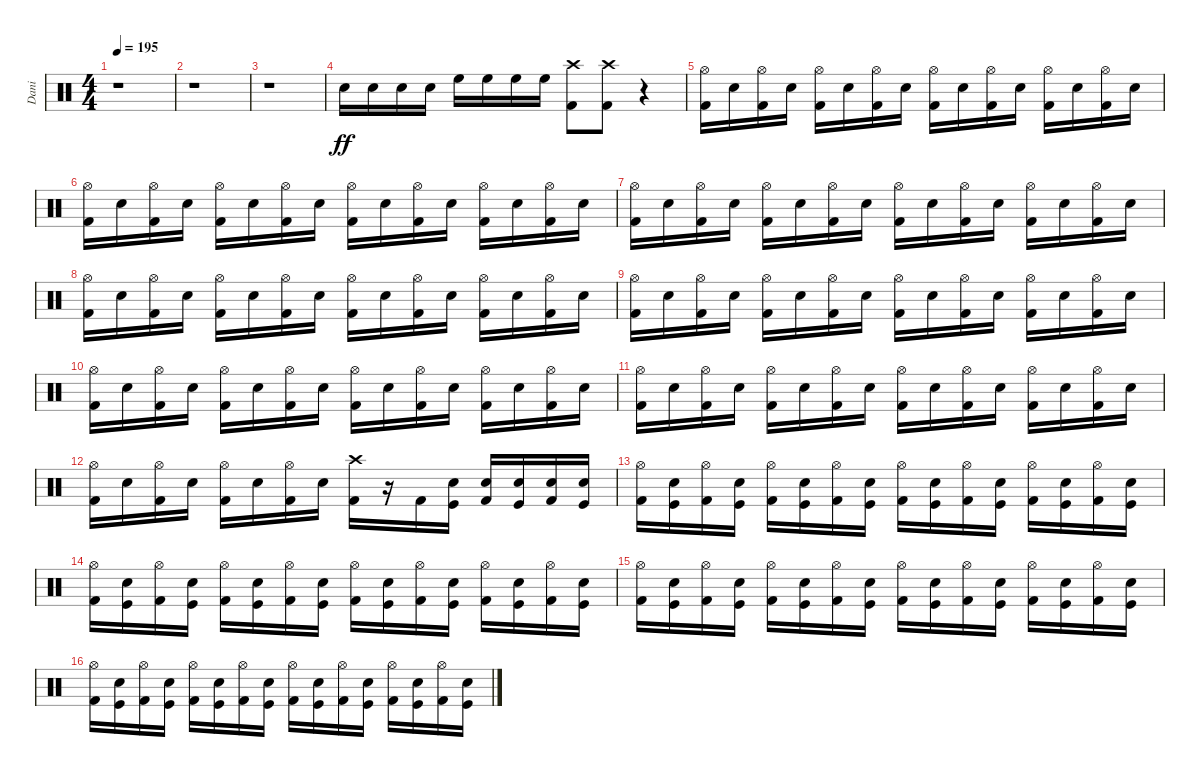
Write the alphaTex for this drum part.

\track ("Dani" "Dani") {instrument percussion}
\staff {score}
\articulation defaults
\ts (4 4)
\section ("" "")
\tempo 195
\clef neutral
\ks c
r.1{dy ff} |
r.1 |
r.1 |
"Electric Snare (hit)".16 "Electric Snare (hit)".16 "Electric Snare (hit)".16 "Electric Snare (hit)".16 "High Floor Tom (hit)".16 "High Floor Tom (hit)".16 "High Floor Tom (hit)".16 "High Floor Tom (hit)".16 ("Crash high (hit)" "Kick (hit) 2").8 ("Crash high (hit)" "Kick (hit) 2").8 r.4 |
("Hi-Hat (open)" "Kick (hit) 2").16 "Electric Snare (hit)".16 ("Hi-Hat (open)" "Kick (hit) 2").16 "Electric Snare (hit)".16 ("Hi-Hat (open)" "Kick (hit) 2").16 "Electric Snare (hit)".16 ("Hi-Hat (open)" "Kick (hit) 2").16 "Electric Snare (hit)".16 ("Hi-Hat (open)" "Kick (hit) 2").16 "Electric Snare (hit)".16 ("Hi-Hat (open)" "Kick (hit) 2").16 "Electric Snare (hit)".16 ("Hi-Hat (open)" "Kick (hit) 2").16 "Electric Snare (hit)".16 ("Hi-Hat (open)" "Kick (hit) 2").16 "Electric Snare (hit)".16 |
("Hi-Hat (open)" "Kick (hit) 2").16 "Electric Snare (hit)".16 ("Hi-Hat (open)" "Kick (hit) 2").16 "Electric Snare (hit)".16 ("Hi-Hat (open)" "Kick (hit) 2").16 "Electric Snare (hit)".16 ("Hi-Hat (open)" "Kick (hit) 2").16 "Electric Snare (hit)".16 ("Hi-Hat (open)" "Kick (hit) 2").16 "Electric Snare (hit)".16 ("Hi-Hat (open)" "Kick (hit) 2").16 "Electric Snare (hit)".16 ("Hi-Hat (open)" "Kick (hit) 2").16 "Electric Snare (hit)".16 ("Hi-Hat (open)" "Kick (hit) 2").16 "Electric Snare (hit)".16 |
("Hi-Hat (open)" "Kick (hit) 2").16 "Electric Snare (hit)".16 ("Hi-Hat (open)" "Kick (hit) 2").16 "Electric Snare (hit)".16 ("Hi-Hat (open)" "Kick (hit) 2").16 "Electric Snare (hit)".16 ("Hi-Hat (open)" "Kick (hit) 2").16 "Electric Snare (hit)".16 ("Hi-Hat (open)" "Kick (hit) 2").16 "Electric Snare (hit)".16 ("Hi-Hat (open)" "Kick (hit) 2").16 "Electric Snare (hit)".16 ("Hi-Hat (open)" "Kick (hit) 2").16 "Electric Snare (hit)".16 ("Hi-Hat (open)" "Kick (hit) 2").16 "Electric Snare (hit)".16 |
("Hi-Hat (open)" "Kick (hit) 2").16 "Electric Snare (hit)".16 ("Hi-Hat (open)" "Kick (hit) 2").16 "Electric Snare (hit)".16 ("Hi-Hat (open)" "Kick (hit) 2").16 "Electric Snare (hit)".16 ("Hi-Hat (open)" "Kick (hit) 2").16 "Electric Snare (hit)".16 ("Hi-Hat (open)" "Kick (hit) 2").16 "Electric Snare (hit)".16 ("Hi-Hat (open)" "Kick (hit) 2").16 "Electric Snare (hit)".16 ("Hi-Hat (open)" "Kick (hit) 2").16 "Electric Snare (hit)".16 ("Hi-Hat (open)" "Kick (hit) 2").16 "Electric Snare (hit)".16 |
("Hi-Hat (open)" "Kick (hit) 2").16 "Electric Snare (hit)".16 ("Hi-Hat (open)" "Kick (hit) 2").16 "Electric Snare (hit)".16 ("Hi-Hat (open)" "Kick (hit) 2").16 "Electric Snare (hit)".16 ("Hi-Hat (open)" "Kick (hit) 2").16 "Electric Snare (hit)".16 ("Hi-Hat (open)" "Kick (hit) 2").16 "Electric Snare (hit)".16 ("Hi-Hat (open)" "Kick (hit) 2").16 "Electric Snare (hit)".16 ("Hi-Hat (open)" "Kick (hit) 2").16 "Electric Snare (hit)".16 ("Hi-Hat (open)" "Kick (hit) 2").16 "Electric Snare (hit)".16 |
("Hi-Hat (open)" "Kick (hit) 2").16 "Electric Snare (hit)".16 ("Hi-Hat (open)" "Kick (hit) 2").16 "Electric Snare (hit)".16 ("Hi-Hat (open)" "Kick (hit) 2").16 "Electric Snare (hit)".16 ("Hi-Hat (open)" "Kick (hit) 2").16 "Electric Snare (hit)".16 ("Hi-Hat (open)" "Kick (hit) 2").16 "Electric Snare (hit)".16 ("Hi-Hat (open)" "Kick (hit) 2").16 "Electric Snare (hit)".16 ("Hi-Hat (open)" "Kick (hit) 2").16 "Electric Snare (hit)".16 ("Hi-Hat (open)" "Kick (hit) 2").16 "Electric Snare (hit)".16 |
("Hi-Hat (open)" "Kick (hit) 2").16 "Electric Snare (hit)".16 ("Hi-Hat (open)" "Kick (hit) 2").16 "Electric Snare (hit)".16 ("Hi-Hat (open)" "Kick (hit) 2").16 "Electric Snare (hit)".16 ("Hi-Hat (open)" "Kick (hit) 2").16 "Electric Snare (hit)".16 ("Hi-Hat (open)" "Kick (hit) 2").16 "Electric Snare (hit)".16 ("Hi-Hat (open)" "Kick (hit) 2").16 "Electric Snare (hit)".16 ("Hi-Hat (open)" "Kick (hit) 2").16 "Electric Snare (hit)".16 ("Hi-Hat (open)" "Kick (hit) 2").16 "Electric Snare (hit)".16 |
("Hi-Hat (open)" "Kick (hit) 2").16 "Electric Snare (hit)".16 ("Hi-Hat (open)" "Kick (hit) 2").16 "Electric Snare (hit)".16 ("Hi-Hat (open)" "Kick (hit) 2").16 "Electric Snare (hit)".16 ("Hi-Hat (open)" "Kick (hit) 2").16 "Electric Snare (hit)".16 ("Crash high (hit)" "Kick (hit) 2").16 r.16 "Kick (hit) 2".16 ("Electric Snare (hit)" "Kick (hit)").16 ("Electric Snare (hit)" "Kick (hit) 2").16 ("Electric Snare (hit)" "Kick (hit)").16 ("Electric Snare (hit)" "Kick (hit) 2").16 ("Electric Snare (hit)" "Kick (hit)").16 |
("Hi-Hat (open)" "Kick (hit) 2").16 ("Electric Snare (hit)" "Kick (hit)").16 ("Hi-Hat (open)" "Kick (hit) 2").16 ("Electric Snare (hit)" "Kick (hit)").16 ("Hi-Hat (open)" "Kick (hit) 2").16 ("Electric Snare (hit)" "Kick (hit)").16 ("Hi-Hat (open)" "Kick (hit) 2").16 ("Electric Snare (hit)" "Kick (hit)").16 ("Hi-Hat (open)" "Kick (hit) 2").16 ("Electric Snare (hit)" "Kick (hit)").16 ("Hi-Hat (open)" "Kick (hit) 2").16 ("Electric Snare (hit)" "Kick (hit)").16 ("Hi-Hat (open)" "Kick (hit) 2").16 ("Electric Snare (hit)" "Kick (hit)").16 ("Hi-Hat (open)" "Kick (hit) 2").16 ("Electric Snare (hit)" "Kick (hit)").16 |
("Hi-Hat (open)" "Kick (hit) 2").16 ("Electric Snare (hit)" "Kick (hit)").16 ("Hi-Hat (open)" "Kick (hit) 2").16 ("Electric Snare (hit)" "Kick (hit)").16 ("Hi-Hat (open)" "Kick (hit) 2").16 ("Electric Snare (hit)" "Kick (hit)").16 ("Hi-Hat (open)" "Kick (hit) 2").16 ("Electric Snare (hit)" "Kick (hit)").16 ("Hi-Hat (open)" "Kick (hit) 2").16 ("Electric Snare (hit)" "Kick (hit)").16 ("Hi-Hat (open)" "Kick (hit) 2").16 ("Electric Snare (hit)" "Kick (hit)").16 ("Hi-Hat (open)" "Kick (hit) 2").16 ("Electric Snare (hit)" "Kick (hit)").16 ("Hi-Hat (open)" "Kick (hit) 2").16 ("Electric Snare (hit)" "Kick (hit)").16 |
("Hi-Hat (open)" "Kick (hit) 2").16 ("Electric Snare (hit)" "Kick (hit)").16 ("Hi-Hat (open)" "Kick (hit) 2").16 ("Electric Snare (hit)" "Kick (hit)").16 ("Hi-Hat (open)" "Kick (hit) 2").16 ("Electric Snare (hit)" "Kick (hit)").16 ("Hi-Hat (open)" "Kick (hit) 2").16 ("Electric Snare (hit)" "Kick (hit)").16 ("Hi-Hat (open)" "Kick (hit) 2").16 ("Electric Snare (hit)" "Kick (hit)").16 ("Hi-Hat (open)" "Kick (hit) 2").16 ("Electric Snare (hit)" "Kick (hit)").16 ("Hi-Hat (open)" "Kick (hit) 2").16 ("Electric Snare (hit)" "Kick (hit)").16 ("Hi-Hat (open)" "Kick (hit) 2").16 ("Electric Snare (hit)" "Kick (hit)").16 |
("Hi-Hat (open)" "Kick (hit) 2").16 ("Electric Snare (hit)" "Kick (hit)").16 ("Hi-Hat (open)" "Kick (hit) 2").16 ("Electric Snare (hit)" "Kick (hit)").16 ("Hi-Hat (open)" "Kick (hit) 2").16 ("Electric Snare (hit)" "Kick (hit)").16 ("Hi-Hat (open)" "Kick (hit) 2").16 ("Electric Snare (hit)" "Kick (hit)").16 ("Hi-Hat (open)" "Kick (hit) 2").16 ("Electric Snare (hit)" "Kick (hit)").16 ("Hi-Hat (open)" "Kick (hit) 2").16 ("Electric Snare (hit)" "Kick (hit)").16 ("Hi-Hat (open)" "Kick (hit) 2").16 ("Electric Snare (hit)" "Kick (hit)").16 ("Hi-Hat (open)" "Kick (hit) 2").16 ("Electric Snare (hit)" "Kick (hit)").16
